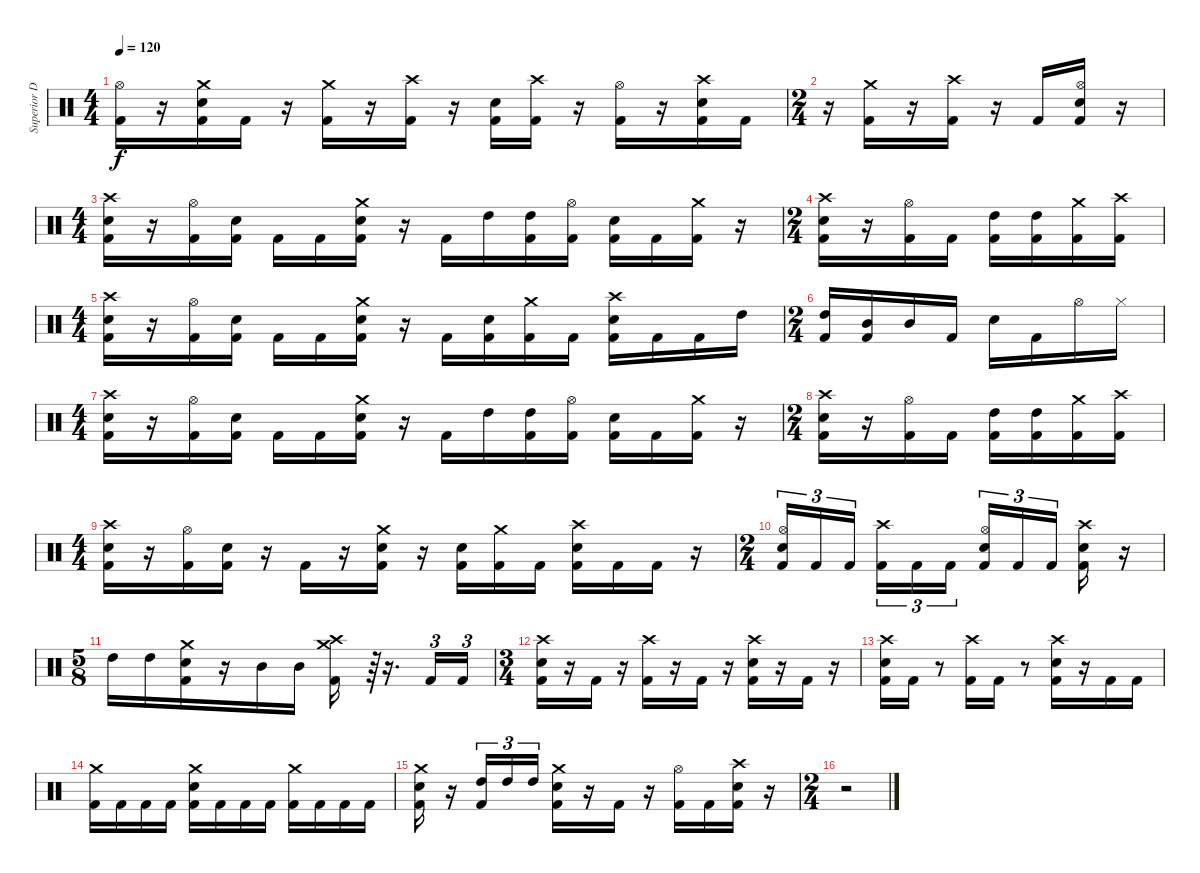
\track ("Superior Drummer 07" "Superior D") {instrument percussion}
\staff {score}
\articulation defaults
\ts (4 4)
\tempo 120
\clef neutral
\ks c
("Kick (hit) 2" "Hi-Hat (open)").16{dy f} r.16 ("Kick (hit) 2" "Snare (hit) 2" "Crash medium (hit)").16 "Kick (hit) 2".16 r.16 ("Kick (hit) 2" "Crash medium (hit)").16 r.16 ("Kick (hit) 2" "Crash high (hit)").16 r.16 ("Kick (hit) 2" "Snare (hit) 2").16 ("Kick (hit) 2" "Crash high (hit)").16 r.16 ("Kick (hit) 2" "Hi-Hat (open)").16 r.16 ("Kick (hit) 2" "Snare (hit) 2" "Crash high (hit)").16 "Kick (hit) 2".16 |
\ts (2 4)
r.16 ("Kick (hit) 2" "Crash medium (hit)").16 r.16 ("Kick (hit) 2" "Crash high (hit)").16 r.16 "Kick (hit) 2".16 ("Kick (hit) 2" "Snare (hit) 2" "Hi-Hat (open)").16 r.16 |
\ts (4 4)
("Kick (hit) 2" "Snare (hit) 2" "Crash high (hit)").16 r.16 ("Kick (hit) 2" "Hi-Hat (open)").16 ("Kick (hit) 2" "Snare (hit) 2").16 "Kick (hit) 2".16 "Kick (hit) 2".16 ("Kick (hit) 2" "Snare (hit) 2" "Crash medium (hit)").16 r.16 "Kick (hit) 2".16 "High Tom (hit)".16 ("Kick (hit) 2" "High Tom (hit)").16 ("Kick (hit) 2" "Hi-Hat (open)").16 ("Kick (hit) 2" "Snare (hit) 2").16 "Kick (hit) 2".16 ("Kick (hit) 2" "Crash medium (hit)").16 r.16 |
\ts (2 4)
("Kick (hit) 2" "Snare (hit) 2" "Crash high (hit)").16 r.16 ("Kick (hit) 2" "Hi-Hat (open)").16 "Kick (hit) 2".16 ("Kick (hit) 2" "High Tom (hit)").16 ("Kick (hit) 2" "High Tom (hit)").16 ("Kick (hit) 2" "Crash medium (hit)").16 ("Kick (hit) 2" "Crash high (hit)").16 |
\ts (4 4)
("Kick (hit) 2" "Snare (hit) 2" "Crash high (hit)").16 r.16 ("Kick (hit) 2" "Hi-Hat (open)").16 ("Kick (hit) 2" "Snare (hit) 2").16 "Kick (hit) 2".16 "Kick (hit) 2".16 ("Kick (hit) 2" "Snare (hit) 2" "Crash medium (hit)").16 r.16 "Kick (hit) 2".16 ("Kick (hit) 2" "Snare (hit) 2").16 ("Kick (hit) 2" "Crash medium (hit)").16 "Kick (hit) 2".16 ("Kick (hit) 2" "Snare (hit) 2" "Crash high (hit)").16 "Kick (hit) 2".16 "Kick (hit) 2".16 "High Tom (hit)".16 |
\ts (2 4)
("Kick (hit) 2" "High Tom (hit)").16 ("Kick (hit) 2" "Mid Tom (hit)").16 "Mid Tom (hit)".16 "Kick (hit) 2".16 "Snare (hit) 2".16 "Kick (hit) 2".16 "Hi-Hat (open)".16 "Hi-Hat (closed)".16 |
\ts (4 4)
("Kick (hit) 2" "Snare (hit) 2" "Crash high (hit)").16 r.16 ("Kick (hit) 2" "Hi-Hat (open)").16 ("Kick (hit) 2" "Snare (hit) 2").16 "Kick (hit) 2".16 "Kick (hit) 2".16 ("Kick (hit) 2" "Snare (hit) 2" "Crash medium (hit)").16 r.16 "Kick (hit) 2".16 "High Tom (hit)".16 ("Kick (hit) 2" "High Tom (hit)").16 ("Kick (hit) 2" "Hi-Hat (open)").16 ("Kick (hit) 2" "Snare (hit) 2").16 "Kick (hit) 2".16 ("Kick (hit) 2" "Crash medium (hit)").16 r.16 |
\ts (2 4)
("Kick (hit) 2" "Snare (hit) 2" "Crash high (hit)").16 r.16 ("Kick (hit) 2" "Hi-Hat (open)").16 "Kick (hit) 2".16 ("Kick (hit) 2" "High Tom (hit)").16 ("Kick (hit) 2" "High Tom (hit)").16 ("Kick (hit) 2" "Crash medium (hit)").16 ("Kick (hit) 2" "Crash high (hit)").16 |
\ts (4 4)
("Kick (hit) 2" "Snare (hit) 2" "Crash high (hit)").16 r.16 ("Kick (hit) 2" "Hi-Hat (open)").16 ("Kick (hit) 2" "Snare (hit) 2").16 r.16 "Kick (hit) 2".16 r.16 ("Kick (hit) 2" "Snare (hit) 2" "Crash medium (hit)").16 r.16 ("Kick (hit) 2" "Snare (hit) 2").16 ("Kick (hit) 2" "Crash medium (hit)").16 "Kick (hit) 2".16 ("Kick (hit) 2" "Snare (hit) 2" "Crash high (hit)").16 "Kick (hit) 2".16 "Kick (hit) 2".16 r.16 |
\ts (2 4)
("Kick (hit) 2" "Snare (hit) 2" "Hi-Hat (open)").16{tu (3 2)} "Kick (hit) 2".16{tu (3 2)} "Kick (hit) 2".16{tu (3 2) beam splitsecondary} ("Kick (hit) 2" "Crash high (hit)").16{tu (3 2)} "Kick (hit) 2".16{tu (3 2)} "Kick (hit) 2".16{tu (3 2)} ("Kick (hit) 2" "Snare (hit) 2" "Hi-Hat (open)").16{tu (3 2)} "Kick (hit) 2".16{tu (3 2)} "Kick (hit) 2".16{tu (3 2) beam splitsecondary} ("Kick (hit) 2" "Snare (hit) 2" "Crash high (hit)").16 r.16 |
\ts (5 8)
"High Tom (hit)".16 "High Tom (hit)".16 ("Kick (hit) 2" "Snare (hit) 2" "Crash medium (hit)").16 r.16 "Mid Tom (hit)".16 "Mid Tom (hit)".16 ("Kick (hit) 2" "Crash high (hit)" "Crash medium (hit)").16 r.64{tu (3 2)} r.16{d} "Kick (hit) 2".16{tu (3 2)} "Kick (hit) 2".16{tu (3 2)} |
\ts (3 4)
("Kick (hit) 2" "Snare (hit) 2" "Crash high (hit)").16 r.16 "Kick (hit) 2".16 r.16 ("Kick (hit) 2" "Crash high (hit)").16 r.16 "Kick (hit) 2".16 r.16 ("Kick (hit) 2" "Snare (hit) 2" "Crash high (hit)").16 r.16 "Kick (hit) 2".16 r.16 |
("Kick (hit) 2" "Snare (hit) 2" "Crash high (hit)").16 "Kick (hit) 2".16 r.8 ("Kick (hit) 2" "Crash high (hit)").16 "Kick (hit) 2".16 r.8 ("Kick (hit) 2" "Snare (hit) 2" "Crash high (hit)").16 r.16 "Kick (hit) 2".16 "Kick (hit) 2".16 |
("Kick (hit) 2" "Crash medium (hit)").16 "Kick (hit) 2".16 "Kick (hit) 2".16 "Kick (hit) 2".16 ("Kick (hit) 2" "Snare (hit) 2" "Crash medium (hit)").16 "Kick (hit) 2".16 "Kick (hit) 2".16 "Kick (hit) 2".16 ("Kick (hit) 2" "Crash medium (hit)").16 "Kick (hit) 2".16 "Kick (hit) 2".16 "Kick (hit) 2".16 |
("Kick (hit) 2" "Snare (hit) 2" "Crash medium (hit)").16 r.16 ("Kick (hit) 2" "High Tom (hit)").16{tu (3 2)} "High Tom (hit)".16{tu (3 2)} "High Tom (hit)".16{tu (3 2)} ("Kick (hit) 2" "Snare (hit) 2" "Crash medium (hit)").16 r.16 "Kick (hit) 2".16 r.16 ("Kick (hit) 2" "Hi-Hat (open)").16 "Kick (hit) 2".16 ("Kick (hit) 2" "Snare (hit) 2" "Crash high (hit)").16 r.16 |
\ts (2 4)
r.2
